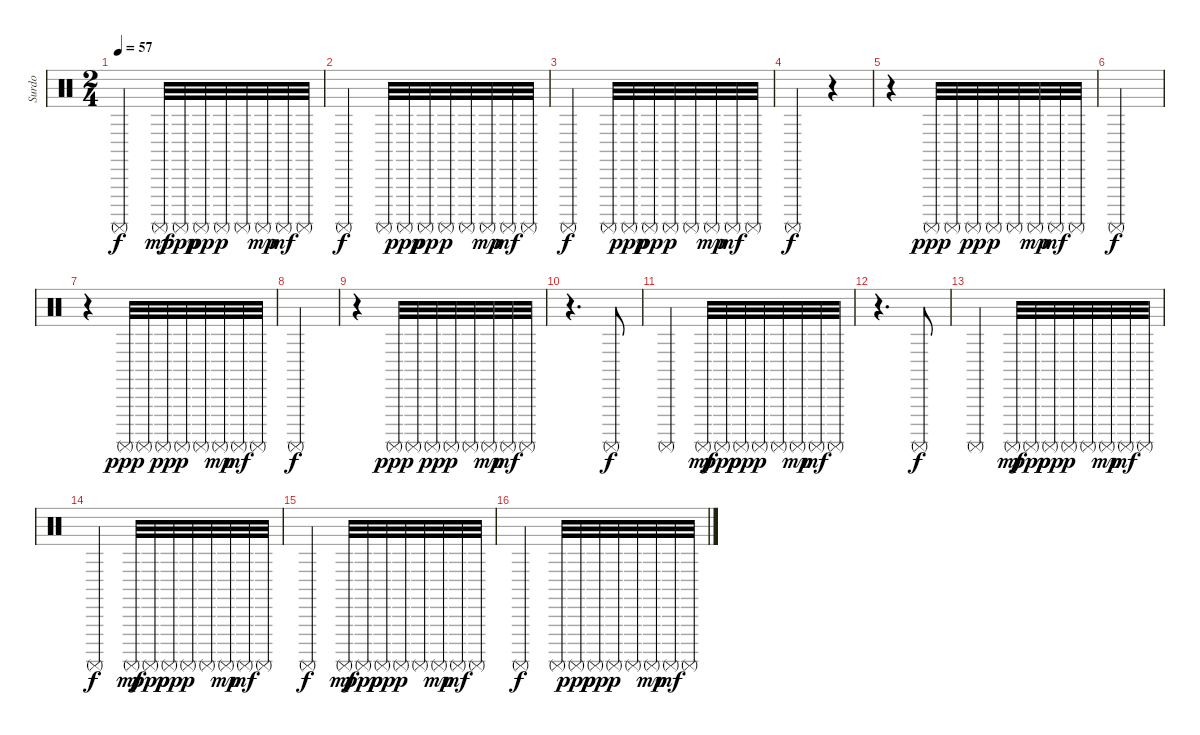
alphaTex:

\track ("Surdo" "Surdo") {instrument percussion}
\staff {score}
\articulation defaults
\ts (2 4)
\tempo 57
\clef neutral
\ks c "Surdo (mute)".4{dy f} "Surdo (mute)".32{dy mf} "Surdo (mute)".32{dy ppp} "Surdo (mute)".32{dy pp} "Surdo (mute)".32{dy p} "Surdo (mute)".32 "Surdo (mute)".32{dy mp} "Surdo (mute)".32{dy mf} "Surdo (mute)".32
|
"Surdo (mute)".4{dy f} "Surdo (mute)".32 "Surdo (mute)".32{dy ppp} "Surdo (mute)".32{dy pp} "Surdo (mute)".32{dy p} "Surdo (mute)".32 "Surdo (mute)".32{dy mp} "Surdo (mute)".32{dy mf} "Surdo (mute)".32 |
"Surdo (mute)".4{dy f} "Surdo (mute)".32 "Surdo (mute)".32{dy ppp} "Surdo (mute)".32{dy pp} "Surdo (mute)".32{dy p} "Surdo (mute)".32 "Surdo (mute)".32{dy mp} "Surdo (mute)".32{dy mf} "Surdo (mute)".32 |
"Surdo (mute)".4{dy f} r.4 |
r.4 "Surdo (mute)".32{dy ppp} "Surdo (mute)".32 "Surdo (mute)".32{dy pp} "Surdo (mute)".32{dy p} "Surdo (mute)".32 "Surdo (mute)".32{dy mp} "Surdo (mute)".32{dy mf} "Surdo (mute)".32 |
"Surdo (mute)".2{dy f} |
r.4 "Surdo (mute)".32{dy ppp} "Surdo (mute)".32 "Surdo (mute)".32{dy pp} "Surdo (mute)".32{dy p} "Surdo (mute)".32 "Surdo (mute)".32{dy mp} "Surdo (mute)".32{dy mf} "Surdo (mute)".32 |
"Surdo (mute)".2{dy f} |
r.4 "Surdo (mute)".32{dy ppp} "Surdo (mute)".32 "Surdo (mute)".32{dy pp} "Surdo (mute)".32{dy p} "Surdo (mute)".32 "Surdo (mute)".32{dy mp} "Surdo (mute)".32{dy mf} "Surdo (mute)".32 |
r.4{d} "Surdo (mute)".8{dy f} |
"Surdo (mute)".4 "Surdo (mute)".32{dy mf} "Surdo (mute)".32{dy ppp} "Surdo (mute)".32{dy pp} "Surdo (mute)".32{dy p} "Surdo (mute)".32 "Surdo (mute)".32{dy mp} "Surdo (mute)".32{dy mf} "Surdo (mute)".32 |
r.4{d} "Surdo (mute)".8{dy f} |
"Surdo (mute)".4 "Surdo (mute)".32{dy mf} "Surdo (mute)".32{dy ppp} "Surdo (mute)".32{dy pp} "Surdo (mute)".32{dy p} "Surdo (mute)".32 "Surdo (mute)".32{dy mp} "Surdo (mute)".32{dy mf} "Surdo (mute)".32 |
"Surdo (mute)".4{dy f} "Surdo (mute)".32{dy mf} "Surdo (mute)".32{dy ppp} "Surdo (mute)".32{dy pp} "Surdo (mute)".32{dy p} "Surdo (mute)".32 "Surdo (mute)".32{dy mp} "Surdo (mute)".32{dy mf} "Surdo (mute)".32 |
"Surdo (mute)".4{dy f} "Surdo (mute)".32{dy mf} "Surdo (mute)".32{dy ppp} "Surdo (mute)".32{dy pp} "Surdo (mute)".32{dy p} "Surdo (mute)".32 "Surdo (mute)".32{dy mp} "Surdo (mute)".32{dy mf} "Surdo (mute)".32 |
"Surdo (mute)".4{dy f} "Surdo (mute)".32 "Surdo (mute)".32{dy ppp} "Surdo (mute)".32{dy pp} "Surdo (mute)".32{dy p} "Surdo (mute)".32 "Surdo (mute)".32{dy mp} "Surdo (mute)".32{dy mf} "Surdo (mute)".32
